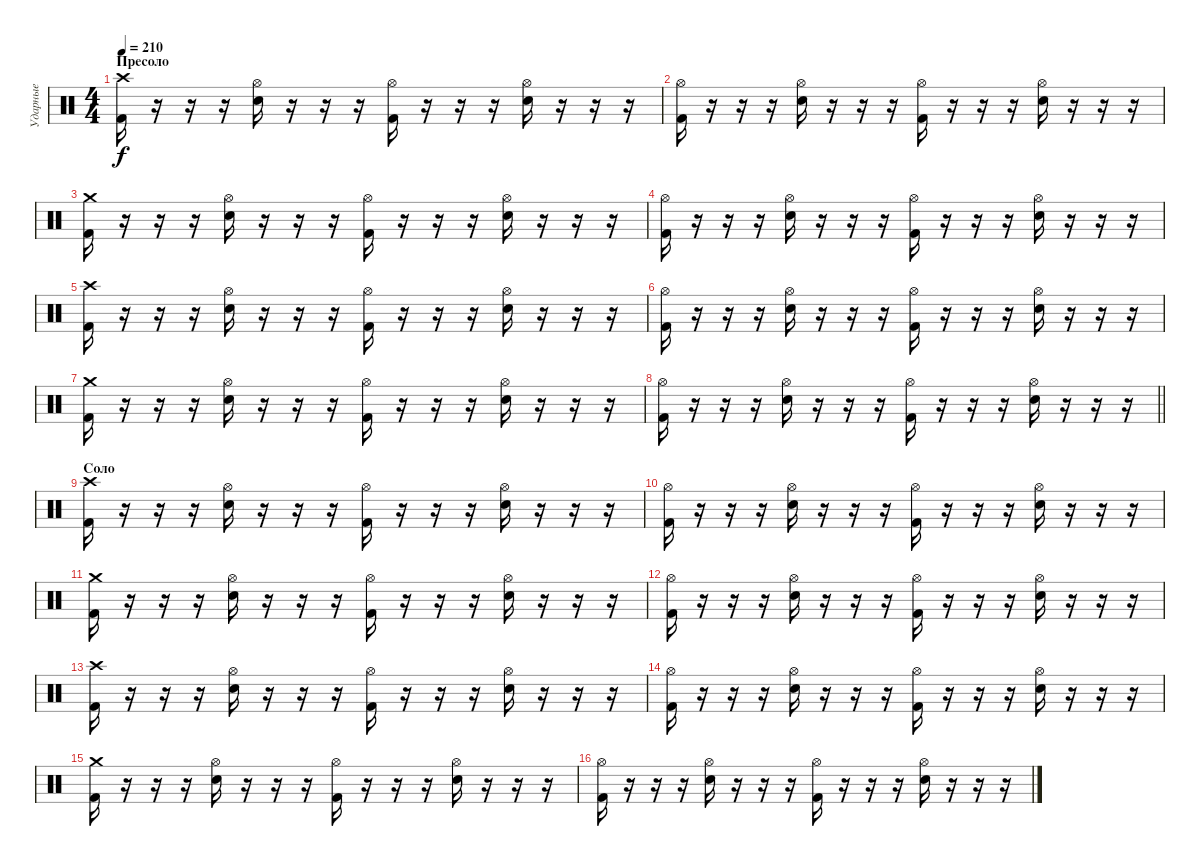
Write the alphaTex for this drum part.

\track ("Ударные" "Ударные") {instrument percussion}
\staff {score}
\articulation defaults
\ts (4 4)
\section ("" "Пресоло")
\tempo 210
\clef neutral
\ks c
("Kick (hit) 2" "Crash high (hit)").16{dy f} r.16 r.16 r.16 ("Electric Snare (hit)" "Hi-Hat (open)").16 r.16 r.16 r.16 ("Kick (hit) 2" "Hi-Hat (open)").16 r.16 r.16 r.16 ("Electric Snare (hit)" "Hi-Hat (open)").16 r.16 r.16 r.16 |
("Kick (hit) 2" "Hi-Hat (open)").16 r.16 r.16 r.16 ("Electric Snare (hit)" "Hi-Hat (open)").16 r.16 r.16 r.16 ("Kick (hit) 2" "Hi-Hat (open)").16 r.16 r.16 r.16 ("Electric Snare (hit)" "Hi-Hat (open)").16 r.16 r.16 r.16 |
("Kick (hit) 2" "Crash medium (hit)").16 r.16 r.16 r.16 ("Electric Snare (hit)" "Hi-Hat (open)").16 r.16 r.16 r.16 ("Kick (hit) 2" "Hi-Hat (open)").16 r.16 r.16 r.16 ("Electric Snare (hit)" "Hi-Hat (open)").16 r.16 r.16 r.16 |
("Kick (hit) 2" "Hi-Hat (open)").16 r.16 r.16 r.16 ("Electric Snare (hit)" "Hi-Hat (open)").16 r.16 r.16 r.16 ("Kick (hit) 2" "Hi-Hat (open)").16 r.16 r.16 r.16 ("Electric Snare (hit)" "Hi-Hat (open)").16 r.16 r.16 r.16 |
("Kick (hit) 2" "Crash high (hit)").16 r.16 r.16 r.16 ("Electric Snare (hit)" "Hi-Hat (open)").16 r.16 r.16 r.16 ("Kick (hit) 2" "Hi-Hat (open)").16 r.16 r.16 r.16 ("Electric Snare (hit)" "Hi-Hat (open)").16 r.16 r.16 r.16 |
("Kick (hit) 2" "Hi-Hat (open)").16 r.16 r.16 r.16 ("Electric Snare (hit)" "Hi-Hat (open)").16 r.16 r.16 r.16 ("Kick (hit) 2" "Hi-Hat (open)").16 r.16 r.16 r.16 ("Electric Snare (hit)" "Hi-Hat (open)").16 r.16 r.16 r.16 |
("Kick (hit) 2" "Crash medium (hit)").16 r.16 r.16 r.16 ("Electric Snare (hit)" "Hi-Hat (open)").16 r.16 r.16 r.16 ("Kick (hit) 2" "Hi-Hat (open)").16 r.16 r.16 r.16 ("Electric Snare (hit)" "Hi-Hat (open)").16 r.16 r.16 r.16 |
\barLineRight lightlight
("Kick (hit) 2" "Hi-Hat (open)").16 r.16 r.16 r.16 ("Electric Snare (hit)" "Hi-Hat (open)").16 r.16 r.16 r.16 ("Kick (hit) 2" "Hi-Hat (open)").16 r.16 r.16 r.16 ("Electric Snare (hit)" "Hi-Hat (open)").16 r.16 r.16 r.16 |
\section ("" "Соло")
("Kick (hit) 2" "Crash high (hit)").16 r.16 r.16 r.16 ("Electric Snare (hit)" "Hi-Hat (open)").16 r.16 r.16 r.16 ("Kick (hit) 2" "Hi-Hat (open)").16 r.16 r.16 r.16 ("Electric Snare (hit)" "Hi-Hat (open)").16 r.16 r.16 r.16 |
("Kick (hit) 2" "Hi-Hat (open)").16 r.16 r.16 r.16 ("Electric Snare (hit)" "Hi-Hat (open)").16 r.16 r.16 r.16 ("Kick (hit) 2" "Hi-Hat (open)").16 r.16 r.16 r.16 ("Electric Snare (hit)" "Hi-Hat (open)").16 r.16 r.16 r.16 |
("Kick (hit) 2" "Crash medium (hit)").16 r.16 r.16 r.16 ("Electric Snare (hit)" "Hi-Hat (open)").16 r.16 r.16 r.16 ("Kick (hit) 2" "Hi-Hat (open)").16 r.16 r.16 r.16 ("Electric Snare (hit)" "Hi-Hat (open)").16 r.16 r.16 r.16 |
("Kick (hit) 2" "Hi-Hat (open)").16 r.16 r.16 r.16 ("Electric Snare (hit)" "Hi-Hat (open)").16 r.16 r.16 r.16 ("Kick (hit) 2" "Hi-Hat (open)").16 r.16 r.16 r.16 ("Electric Snare (hit)" "Hi-Hat (open)").16 r.16 r.16 r.16 |
("Kick (hit) 2" "Crash high (hit)").16 r.16 r.16 r.16 ("Electric Snare (hit)" "Hi-Hat (open)").16 r.16 r.16 r.16 ("Kick (hit) 2" "Hi-Hat (open)").16 r.16 r.16 r.16 ("Electric Snare (hit)" "Hi-Hat (open)").16 r.16 r.16 r.16 |
("Kick (hit) 2" "Hi-Hat (open)").16 r.16 r.16 r.16 ("Electric Snare (hit)" "Hi-Hat (open)").16 r.16 r.16 r.16 ("Kick (hit) 2" "Hi-Hat (open)").16 r.16 r.16 r.16 ("Electric Snare (hit)" "Hi-Hat (open)").16 r.16 r.16 r.16 |
("Kick (hit) 2" "Crash medium (hit)").16 r.16 r.16 r.16 ("Electric Snare (hit)" "Hi-Hat (open)").16 r.16 r.16 r.16 ("Kick (hit) 2" "Hi-Hat (open)").16 r.16 r.16 r.16 ("Electric Snare (hit)" "Hi-Hat (open)").16 r.16 r.16 r.16 |
("Kick (hit) 2" "Hi-Hat (open)").16 r.16 r.16 r.16 ("Electric Snare (hit)" "Hi-Hat (open)").16 r.16 r.16 r.16 ("Kick (hit) 2" "Hi-Hat (open)").16 r.16 r.16 r.16 ("Electric Snare (hit)" "Hi-Hat (open)").16 r.16 r.16 r.16
